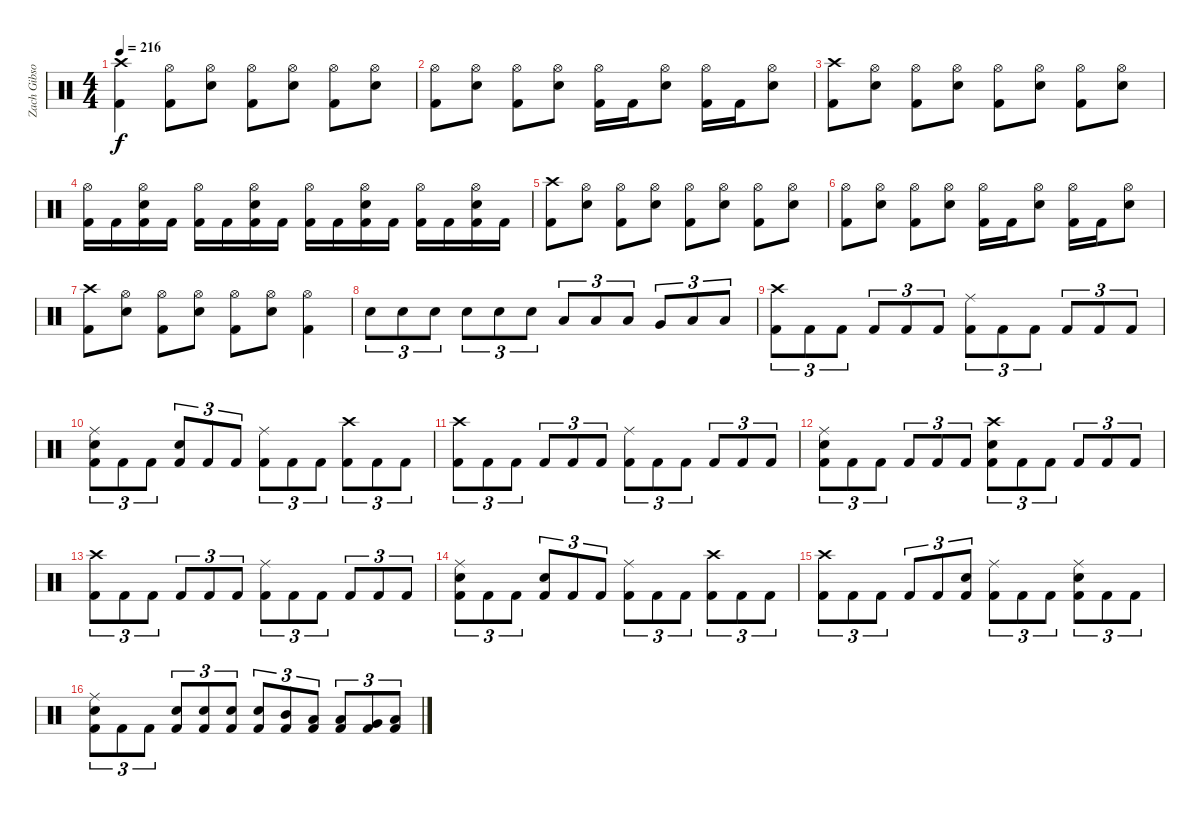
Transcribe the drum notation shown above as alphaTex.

\track ("Zach Gibson (Ex-Drums)" "Zach Gibso") {instrument percussion}
\staff {score}
\articulation defaults
\ts (4 4)
\tempo 216
\clef neutral
\ks c
("Crash high (hit)" "Kick (hit) 2").4{dy f} ("Hi-Hat (open)" "Kick (hit) 2").8 ("Hi-Hat (open)" "Snare (hit) 2").8 ("Hi-Hat (open)" "Kick (hit) 2").8 ("Hi-Hat (open)" "Snare (hit) 2").8 ("Hi-Hat (open)" "Kick (hit) 2").8 ("Hi-Hat (open)" "Snare (hit) 2").8 |
("Hi-Hat (open)" "Kick (hit) 2").8 ("Hi-Hat (open)" "Snare (hit) 2").8 ("Hi-Hat (open)" "Kick (hit) 2").8 ("Hi-Hat (open)" "Snare (hit) 2").8 ("Hi-Hat (open)" "Kick (hit) 2").16 "Kick (hit) 2".16 ("Hi-Hat (open)" "Snare (hit) 2").8 ("Hi-Hat (open)" "Kick (hit) 2").16 "Kick (hit) 2".16 ("Hi-Hat (open)" "Snare (hit) 2").8 |
("Crash high (hit)" "Kick (hit) 2").8 ("Hi-Hat (open)" "Snare (hit) 2").8 ("Hi-Hat (open)" "Kick (hit) 2").8 ("Hi-Hat (open)" "Snare (hit) 2").8 ("Hi-Hat (open)" "Kick (hit) 2").8 ("Hi-Hat (open)" "Snare (hit) 2").8 ("Hi-Hat (open)" "Kick (hit) 2").8 ("Hi-Hat (open)" "Snare (hit) 2").8 |
("Hi-Hat (open)" "Kick (hit) 2").16 "Kick (hit) 2".16 ("Hi-Hat (open)" "Snare (hit) 2" "Kick (hit) 2").16 "Kick (hit) 2".16 ("Hi-Hat (open)" "Kick (hit) 2").16 "Kick (hit) 2".16 ("Hi-Hat (open)" "Snare (hit) 2" "Kick (hit) 2").16 "Kick (hit) 2".16 ("Hi-Hat (open)" "Kick (hit) 2").16 "Kick (hit) 2".16 ("Hi-Hat (open)" "Snare (hit) 2" "Kick (hit) 2").16 "Kick (hit) 2".16 ("Hi-Hat (open)" "Kick (hit) 2").16 "Kick (hit) 2".16 ("Hi-Hat (open)" "Snare (hit) 2" "Kick (hit) 2").16 "Kick (hit) 2".16 |
("Crash high (hit)" "Kick (hit) 2").8 ("Hi-Hat (open)" "Snare (hit) 2").8 ("Hi-Hat (open)" "Kick (hit) 2").8 ("Hi-Hat (open)" "Snare (hit) 2").8 ("Hi-Hat (open)" "Kick (hit) 2").8 ("Hi-Hat (open)" "Snare (hit) 2").8 ("Hi-Hat (open)" "Kick (hit) 2").8 ("Hi-Hat (open)" "Snare (hit) 2").8 |
("Hi-Hat (open)" "Kick (hit) 2").8 ("Hi-Hat (open)" "Snare (hit) 2").8 ("Hi-Hat (open)" "Kick (hit) 2").8 ("Hi-Hat (open)" "Snare (hit) 2").8 ("Hi-Hat (open)" "Kick (hit) 2").16 "Kick (hit) 2".16 ("Hi-Hat (open)" "Snare (hit) 2").8 ("Hi-Hat (open)" "Kick (hit) 2").16 "Kick (hit) 2".16 ("Hi-Hat (open)" "Snare (hit) 2").8 |
("Crash high (hit)" "Kick (hit) 2").8 ("Hi-Hat (open)" "Snare (hit) 2").8 ("Hi-Hat (open)" "Kick (hit) 2").8 ("Hi-Hat (open)" "Snare (hit) 2").8 ("Hi-Hat (open)" "Kick (hit) 2").8 ("Hi-Hat (open)" "Snare (hit) 2").8 ("Hi-Hat (open)" "Kick (hit) 2").4 |
"Snare (hit) 2".8{tu (3 2)} "Snare (hit) 2".8{tu (3 2)} "Snare (hit) 2".8{tu (3 2)} "Snare (hit) 2".8{tu (3 2)} "Snare (hit) 2".8{tu (3 2)} "Snare (hit) 2".8{tu (3 2)} "Low Tom (hit)".8{tu (3 2)} "Low Tom (hit)".8{tu (3 2)} "Low Tom (hit)".8{tu (3 2)} "Very Low Tom (hit)".8{tu (3 2)} "Low Floor Tom (hit)".8{tu (3 2)} "Low Floor Tom (hit)".8{tu (3 2)} |
("Crash high (hit)" "Kick (hit) 2").8{tu (3 2)} "Kick (hit) 2".8{tu (3 2)} "Kick (hit) 2".8{tu (3 2)} "Kick (hit) 2".8{tu (3 2)} "Kick (hit) 2".8{tu (3 2)} "Kick (hit) 2".8{tu (3 2)} ("Ride (middle)" "Kick (hit) 2").8{tu (3 2)} "Kick (hit) 2".8{tu (3 2)} "Kick (hit) 2".8{tu (3 2)} "Kick (hit) 2".8{tu (3 2)} "Kick (hit) 2".8{tu (3 2)} "Kick (hit) 2".8{tu (3 2)} |
("Snare (hit) 2" "Ride (middle)" "Kick (hit) 2").8{tu (3 2)} "Kick (hit) 2".8{tu (3 2)} "Kick (hit) 2".8{tu (3 2)} ("Snare (hit) 2" "Kick (hit) 2").8{tu (3 2)} "Kick (hit) 2".8{tu (3 2)} "Kick (hit) 2".8{tu (3 2)} ("Ride (middle)" "Kick (hit) 2").8{tu (3 2)} "Kick (hit) 2".8{tu (3 2)} "Kick (hit) 2".8{tu (3 2)} ("Crash high (hit)" "Kick (hit) 2").8{tu (3 2)} "Kick (hit) 2".8{tu (3 2)} "Kick (hit) 2".8{tu (3 2)} |
("Crash high (hit)" "Kick (hit) 2").8{tu (3 2)} "Kick (hit) 2".8{tu (3 2)} "Kick (hit) 2".8{tu (3 2)} "Kick (hit) 2".8{tu (3 2)} "Kick (hit) 2".8{tu (3 2)} "Kick (hit) 2".8{tu (3 2)} ("Ride (middle)" "Kick (hit) 2").8{tu (3 2)} "Kick (hit) 2".8{tu (3 2)} "Kick (hit) 2".8{tu (3 2)} "Kick (hit) 2".8{tu (3 2)} "Kick (hit) 2".8{tu (3 2)} "Kick (hit) 2".8{tu (3 2)} |
("Snare (hit) 2" "Ride (middle)" "Kick (hit) 2").8{tu (3 2)} "Kick (hit) 2".8{tu (3 2)} "Kick (hit) 2".8{tu (3 2)} "Kick (hit) 2".8{tu (3 2)} "Kick (hit) 2".8{tu (3 2)} "Kick (hit) 2".8{tu (3 2)} ("Crash high (hit)" "Snare (hit) 2" "Kick (hit) 2").8{tu (3 2)} "Kick (hit) 2".8{tu (3 2)} "Kick (hit) 2".8{tu (3 2)} "Kick (hit) 2".8{tu (3 2)} "Kick (hit) 2".8{tu (3 2)} "Kick (hit) 2".8{tu (3 2)} |
("Crash high (hit)" "Kick (hit) 2").8{tu (3 2)} "Kick (hit) 2".8{tu (3 2)} "Kick (hit) 2".8{tu (3 2)} "Kick (hit) 2".8{tu (3 2)} "Kick (hit) 2".8{tu (3 2)} "Kick (hit) 2".8{tu (3 2)} ("Ride (middle)" "Kick (hit) 2").8{tu (3 2)} "Kick (hit) 2".8{tu (3 2)} "Kick (hit) 2".8{tu (3 2)} "Kick (hit) 2".8{tu (3 2)} "Kick (hit) 2".8{tu (3 2)} "Kick (hit) 2".8{tu (3 2)} |
("Snare (hit) 2" "Ride (middle)" "Kick (hit) 2").8{tu (3 2)} "Kick (hit) 2".8{tu (3 2)} "Kick (hit) 2".8{tu (3 2)} ("Snare (hit) 2" "Kick (hit) 2").8{tu (3 2)} "Kick (hit) 2".8{tu (3 2)} "Kick (hit) 2".8{tu (3 2)} ("Ride (middle)" "Kick (hit) 2").8{tu (3 2)} "Kick (hit) 2".8{tu (3 2)} "Kick (hit) 2".8{tu (3 2)} ("Crash high (hit)" "Kick (hit) 2").8{tu (3 2)} "Kick (hit) 2".8{tu (3 2)} "Kick (hit) 2".8{tu (3 2)} |
("Crash high (hit)" "Kick (hit) 2").8{tu (3 2)} "Kick (hit) 2".8{tu (3 2)} "Kick (hit) 2".8{tu (3 2)} "Kick (hit) 2".8{tu (3 2)} "Kick (hit) 2".8{tu (3 2)} ("Snare (hit) 2" "Kick (hit) 2").8{tu (3 2)} ("Ride (middle)" "Kick (hit) 2").8{tu (3 2)} "Kick (hit) 2".8{tu (3 2)} "Kick (hit) 2".8{tu (3 2)} ("Ride (middle)" "Snare (hit) 2" "Kick (hit) 2").8{tu (3 2)} "Kick (hit) 2".8{tu (3 2)} "Kick (hit) 2".8{tu (3 2)} |
("Snare (hit) 2" "Ride (middle)" "Kick (hit) 2").8{tu (3 2)} "Kick (hit) 2".8{tu (3 2)} "Kick (hit) 2".8{tu (3 2)} ("Snare (hit) 2" "Kick (hit) 2").8{tu (3 2)} ("Snare (hit) 2" "Kick (hit) 2").8{tu (3 2)} ("Snare (hit) 2" "Kick (hit) 2").8{tu (3 2)} ("Snare (hit) 2" "Kick (hit) 2").8{tu (3 2)} ("Mid Tom (hit)" "Kick (hit) 2").8{tu (3 2)} ("Low Tom (hit)" "Kick (hit) 2").8{tu (3 2)} ("Low Tom (hit)" "Kick (hit) 2").8{tu (3 2)} ("Very Low Tom (hit)" "Kick (hit) 2").8{tu (3 2)} ("Low Floor Tom (hit)" "Kick (hit) 2").8{tu (3 2)}
